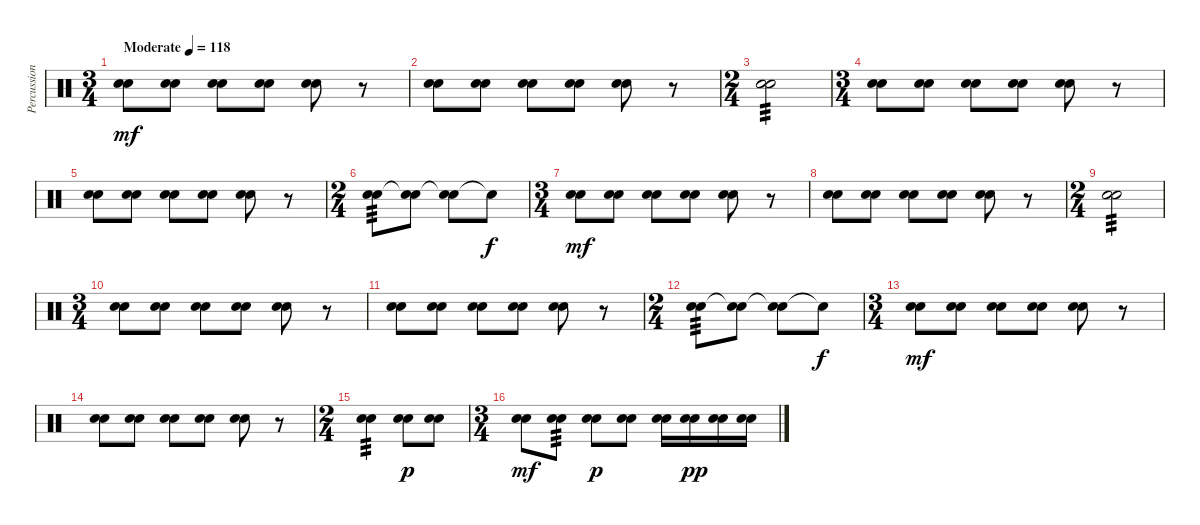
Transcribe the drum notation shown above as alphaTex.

\track ("Percussion" "Percussion") {instrument percussion}
\staff {score}
\articulation defaults
\ts (3 4)
\tempo (118 "Moderate")
\clef neutral
\ks c
("Electric Snare (hit)" "Snare (hit) 2").8{dy mf volume 14 balance 8} ("Electric Snare (hit)" "Snare (hit) 2").8 ("Electric Snare (hit)" "Snare (hit) 2").8 ("Electric Snare (hit)" "Snare (hit) 2").8 ("Electric Snare (hit)" "Snare (hit) 2").8 r.8 |
("Electric Snare (hit)" "Snare (hit) 2").8 ("Electric Snare (hit)" "Snare (hit) 2").8 ("Electric Snare (hit)" "Snare (hit) 2").8 ("Electric Snare (hit)" "Snare (hit) 2").8 ("Electric Snare (hit)" "Snare (hit) 2").8 r.8 |
\ts (2 4)
("Electric Snare (hit)" "Snare (hit) 2").2{tp 3} |
\ts (3 4)
("Electric Snare (hit)" "Snare (hit) 2").8 ("Electric Snare (hit)" "Snare (hit) 2").8 ("Electric Snare (hit)" "Snare (hit) 2").8 ("Electric Snare (hit)" "Snare (hit) 2").8 ("Electric Snare (hit)" "Snare (hit) 2").8 r.8 |
("Electric Snare (hit)" "Snare (hit) 2").8 ("Electric Snare (hit)" "Snare (hit) 2").8 ("Electric Snare (hit)" "Snare (hit) 2").8 ("Electric Snare (hit)" "Snare (hit) 2").8 ("Electric Snare (hit)" "Snare (hit) 2").8 r.8 |
\ts (2 4)
("Electric Snare (hit)" "Snare (hit) 2").8{tp 3} ("Electric Snare (hit)"{t} "Snare (hit) 2").8 ("Electric Snare (hit)"{t} "Snare (hit) 2").8 "Snare (hit)"{t}.8{dy f} |
\ts (3 4)
("Electric Snare (hit)" "Snare (hit) 2").8{dy mf} ("Electric Snare (hit)" "Snare (hit) 2").8 ("Electric Snare (hit)" "Snare (hit) 2").8 ("Electric Snare (hit)" "Snare (hit) 2").8 ("Electric Snare (hit)" "Snare (hit) 2").8 r.8 |
("Electric Snare (hit)" "Snare (hit) 2").8 ("Electric Snare (hit)" "Snare (hit) 2").8 ("Electric Snare (hit)" "Snare (hit) 2").8 ("Electric Snare (hit)" "Snare (hit) 2").8 ("Electric Snare (hit)" "Snare (hit) 2").8 r.8 |
\ts (2 4)
("Electric Snare (hit)" "Snare (hit) 2").2{tp 3} |
\ts (3 4)
("Electric Snare (hit)" "Snare (hit) 2").8 ("Electric Snare (hit)" "Snare (hit) 2").8 ("Electric Snare (hit)" "Snare (hit) 2").8 ("Electric Snare (hit)" "Snare (hit) 2").8 ("Electric Snare (hit)" "Snare (hit) 2").8 r.8 |
("Electric Snare (hit)" "Snare (hit) 2").8 ("Electric Snare (hit)" "Snare (hit) 2").8 ("Electric Snare (hit)" "Snare (hit) 2").8 ("Electric Snare (hit)" "Snare (hit) 2").8 ("Electric Snare (hit)" "Snare (hit) 2").8 r.8 |
\ts (2 4)
("Electric Snare (hit)" "Snare (hit) 2").8{tp 3} ("Electric Snare (hit)"{t} "Snare (hit) 2").8 ("Electric Snare (hit)"{t} "Snare (hit) 2").8 "Snare (hit)"{t}.8{dy f} |
\ts (3 4)
("Electric Snare (hit)" "Snare (hit) 2").8{dy mf} ("Electric Snare (hit)" "Snare (hit) 2").8 ("Electric Snare (hit)" "Snare (hit) 2").8 ("Electric Snare (hit)" "Snare (hit) 2").8 ("Electric Snare (hit)" "Snare (hit) 2").8 r.8 |
("Electric Snare (hit)" "Snare (hit) 2").8 ("Electric Snare (hit)" "Snare (hit) 2").8 ("Electric Snare (hit)" "Snare (hit) 2").8 ("Electric Snare (hit)" "Snare (hit) 2").8 ("Electric Snare (hit)" "Snare (hit) 2").8 r.8 |
\ts (2 4)
("Electric Snare (hit)" "Snare (hit) 2").4{tp 3} ("Electric Snare (hit)" "Snare (hit) 2").8{dy p} ("Electric Snare (hit)" "Snare (hit) 2").8 |
\ts (3 4)
("Electric Snare (hit)" "Snare (hit) 2").8{dy mf} ("Electric Snare (hit)" "Snare (hit) 2").8{tp 3} ("Electric Snare (hit)" "Snare (hit) 2").8{dy p} ("Electric Snare (hit)" "Snare (hit) 2").8 ("Electric Snare (hit)" "Snare (hit) 2").16 ("Electric Snare (hit)" "Snare (hit) 2").16{dy pp} ("Electric Snare (hit)" "Snare (hit) 2").16 ("Electric Snare (hit)" "Snare (hit) 2").16
